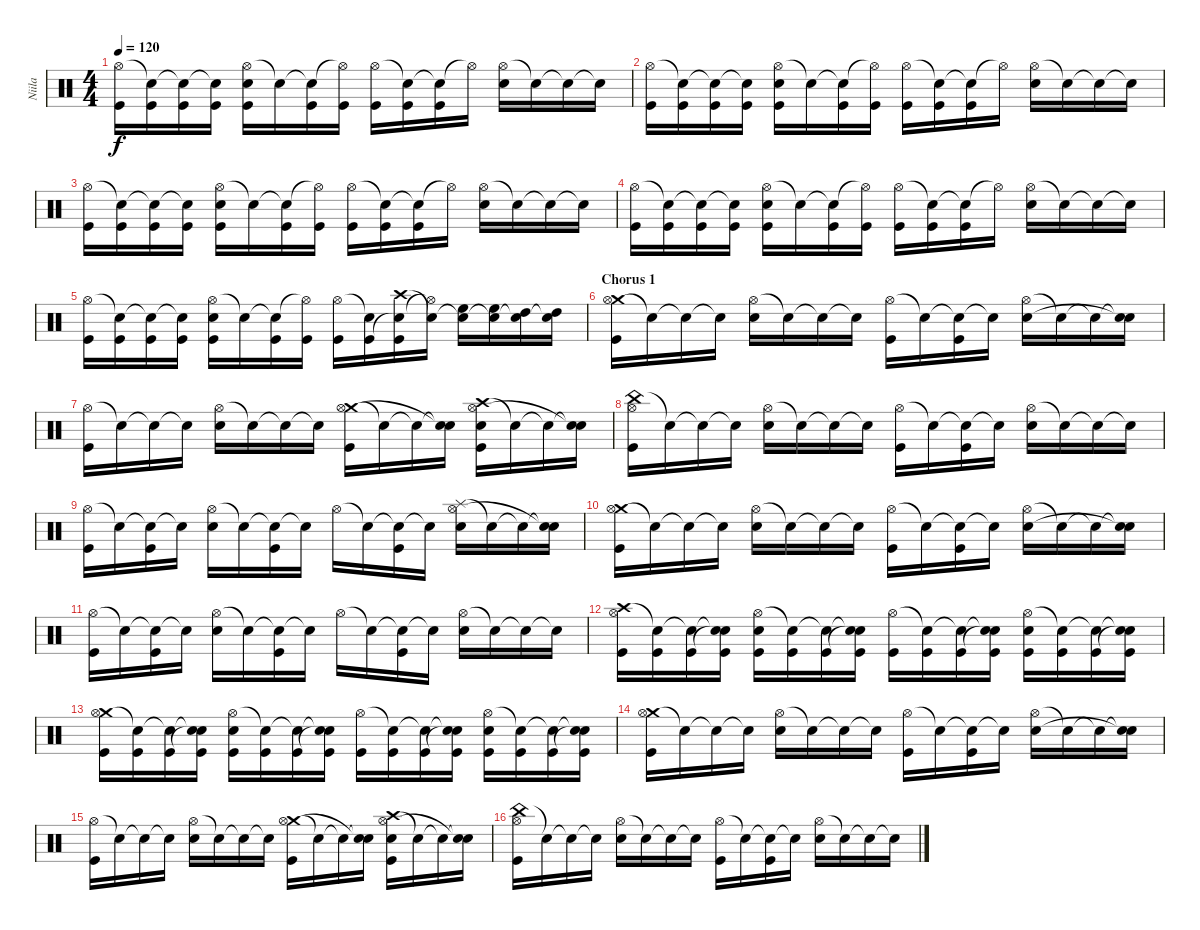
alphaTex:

\track ("Niila" "Niila") {instrument percussion}
\staff {score}
\articulation defaults
\ts (4 4)
\tempo 120
\clef neutral
\ks c
("Hi-Hat (open)" "Kick (hit)").16{dy f} ("Snare (hit)"{t} "Kick (hit)").16 ("Snare (hit)"{t} "Kick (hit)").16 ("Snare (hit)"{t} "Kick (hit)").16 ("Hi-Hat (open)" "Snare (hit) 2" "Kick (hit)").16 "Snare (hit)"{t}.16 ("Snare (hit)"{t} "Kick (hit)").16 ("Hi-Hat (open)"{t} "Kick (hit)").16 ("Hi-Hat (open)" "Kick (hit)").16 ("Snare (hit)"{t} "Kick (hit)").16 ("Snare (hit)"{t} "Kick (hit)").16 "Hi-Hat (open)"{t}.16 ("Hi-Hat (open)" "Snare (hit) 2").16 "Snare (hit)"{t}.16 "Snare (hit)"{t}.16 "Snare (hit)"{t}.16 |
("Hi-Hat (open)" "Kick (hit)").16 ("Snare (hit)"{t} "Kick (hit)").16 ("Snare (hit)"{t} "Kick (hit)").16 ("Snare (hit)"{t} "Kick (hit)").16 ("Hi-Hat (open)" "Snare (hit) 2" "Kick (hit)").16 "Snare (hit)"{t}.16 ("Snare (hit)"{t} "Kick (hit)").16 ("Hi-Hat (open)"{t} "Kick (hit)").16 ("Hi-Hat (open)" "Kick (hit)").16 ("Snare (hit)"{t} "Kick (hit)").16 ("Snare (hit)"{t} "Kick (hit)").16 "Hi-Hat (open)"{t}.16 ("Hi-Hat (open)" "Snare (hit) 2").16 "Snare (hit)"{t}.16 "Snare (hit)"{t}.16 "Snare (hit)"{t}.16 |
("Hi-Hat (open)" "Kick (hit)").16 ("Snare (hit)"{t} "Kick (hit)").16 ("Snare (hit)"{t} "Kick (hit)").16 ("Snare (hit)"{t} "Kick (hit)").16 ("Hi-Hat (open)" "Snare (hit) 2" "Kick (hit)").16 "Snare (hit)"{t}.16 ("Snare (hit)"{t} "Kick (hit)").16 ("Hi-Hat (open)"{t} "Kick (hit)").16 ("Hi-Hat (open)" "Kick (hit)").16 ("Snare (hit)"{t} "Kick (hit)").16 ("Snare (hit)"{t} "Kick (hit)").16 "Hi-Hat (open)"{t}.16 ("Hi-Hat (open)" "Snare (hit) 2").16 "Snare (hit)"{t}.16 "Snare (hit)"{t}.16 "Snare (hit)"{t}.16 |
("Hi-Hat (open)" "Kick (hit)").16 ("Snare (hit)"{t} "Kick (hit)").16 ("Snare (hit)"{t} "Kick (hit)").16 ("Snare (hit)"{t} "Kick (hit)").16 ("Hi-Hat (open)" "Snare (hit) 2" "Kick (hit)").16 "Snare (hit)"{t}.16 ("Snare (hit)"{t} "Kick (hit)").16 ("Hi-Hat (open)"{t} "Kick (hit)").16 ("Hi-Hat (open)" "Kick (hit)").16 ("Snare (hit)"{t} "Kick (hit)").16 ("Snare (hit)"{t} "Kick (hit)").16 "Hi-Hat (open)"{t}.16 ("Hi-Hat (open)" "Snare (hit) 2").16 "Snare (hit)"{t}.16 "Snare (hit)"{t}.16 "Snare (hit)"{t}.16 |
("Hi-Hat (open)" "Kick (hit)").16 ("Snare (hit)"{t} "Kick (hit)").16 ("Snare (hit)"{t} "Kick (hit)").16 ("Snare (hit)"{t} "Kick (hit)").16 ("Hi-Hat (open)" "Snare (hit) 2" "Kick (hit)").16 "Snare (hit)"{t}.16 ("Snare (hit)"{t} "Kick (hit)").16 ("Hi-Hat (open)"{t} "Kick (hit)").16 ("Hi-Hat (open)" "Kick (hit)").16 ("Snare (hit)"{t} "Kick (hit)").16 ("Crash high (hit)" "Snare (hit)"{t} "Kick (hit)").16 ("Snare (hit)"{t} "Hi-Hat (open)"{t}).16 ("Snare (hit)"{t} "High Floor Tom (hit)").16 ("Snare (hit)"{t} "High Floor Tom (hit)").16 ("Snare (hit)"{t} "High Tom (hit)").16 ("Snare (hit)"{t} "High Tom (hit)").16 |
\section ("" "Chorus 1")
("Crash medium (hit)" "Hi-Hat (open)" "Kick (hit)").16 "Snare (hit)"{t}.16 "Snare (hit)"{t}.16 "Snare (hit)"{t}.16 ("Hi-Hat (open)" "Snare (hit) 2").16 "Snare (hit)"{t}.16 "Snare (hit)"{t}.16 "Snare (hit)"{t}.16 ("Hi-Hat (open)" "Kick (hit)").16 "Snare (hit)"{t}.16 ("Snare (hit)"{t} "Kick (hit)").16 "Snare (hit)"{t}.16 ("Hi-Hat (open)" "Snare (hit) 2").16 "Snare (hit)"{t}.16 "Snare (hit)"{t}.16 ("Snare (hit)"{t} "Snare (hit)"{t}).16 |
("Hi-Hat (open)" "Kick (hit)").16 "Snare (hit)"{t}.16 "Snare (hit)"{t}.16 "Snare (hit)"{t}.16 ("Hi-Hat (open)" "Snare (hit) 2").16 "Snare (hit)"{t}.16 "Snare (hit)"{t}.16 "Snare (hit)"{t}.16 ("Crash medium (hit)" "Hi-Hat (open)" "Kick (hit)").16 "Snare (hit)"{t}.16 "Snare (hit)"{t}.16 ("Snare (hit)"{t} "Snare (hit)"{t}).16 ("Crash high (hit)" "Hi-Hat (open)" "Snare (hit) 2" "Kick (hit)").16 "Snare (hit)"{t}.16 "Snare (hit)"{t}.16 ("Snare (hit)"{t} "Snare (hit)"{t}).16 |
("China (hit)" "Hi-Hat (open)" "Kick (hit)").16 "Snare (hit)"{t}.16 "Snare (hit)"{t}.16 "Snare (hit)"{t}.16 ("Hi-Hat (open)" "Snare (hit) 2").16 "Snare (hit)"{t}.16 "Snare (hit)"{t}.16 "Snare (hit)"{t}.16 ("Hi-Hat (open)" "Kick (hit)").16 "Snare (hit)"{t}.16 ("Snare (hit)"{t} "Kick (hit)").16 "Snare (hit)"{t}.16 ("Hi-Hat (open)" "Snare (hit) 2").16 "Snare (hit)"{t}.16 "Snare (hit)"{t}.16 "Snare (hit)"{t}.16 |
("Hi-Hat (open)" "Kick (hit)").16 "Snare (hit)"{t}.16 ("Snare (hit)"{t} "Kick (hit)").16 "Snare (hit)"{t}.16 ("Hi-Hat (open)" "Snare (hit) 2").16 "Snare (hit)"{t}.16 ("Snare (hit)"{t} "Kick (hit)").16 "Snare (hit)"{t}.16 "Hi-Hat (open)".16 "Snare (hit)"{t}.16 ("Snare (hit)"{t} "Kick (hit)").16 "Snare (hit)"{t}.16 ("Splash (hit)" "Hi-Hat (open)" "Snare (hit) 2").16 "Snare (hit)"{t}.16 "Snare (hit)"{t}.16 ("Snare (hit)"{t} "Snare (hit)"{t}).16 |
("Crash medium (hit)" "Hi-Hat (open)" "Kick (hit)").16 "Snare (hit)"{t}.16 "Snare (hit)"{t}.16 "Snare (hit)"{t}.16 ("Hi-Hat (open)" "Snare (hit) 2").16 "Snare (hit)"{t}.16 "Snare (hit)"{t}.16 "Snare (hit)"{t}.16 ("Hi-Hat (open)" "Kick (hit)").16 "Snare (hit)"{t}.16 ("Snare (hit)"{t} "Kick (hit)").16 "Snare (hit)"{t}.16 ("Hi-Hat (open)" "Snare (hit) 2").16 "Snare (hit)"{t}.16 "Snare (hit)"{t}.16 ("Snare (hit)"{t} "Snare (hit)"{t}).16 |
("Hi-Hat (open)" "Kick (hit)").16 "Snare (hit)"{t}.16 ("Snare (hit)"{t} "Kick (hit)").16 "Snare (hit)"{t}.16 ("Hi-Hat (open)" "Snare (hit) 2").16 "Snare (hit)"{t}.16 ("Snare (hit)"{t} "Kick (hit)").16 "Snare (hit)"{t}.16 "Hi-Hat (open)".16 "Snare (hit)"{t}.16 ("Snare (hit)"{t} "Kick (hit)").16 "Snare (hit)"{t}.16 ("Hi-Hat (open)" "Snare (hit) 2").16 "Snare (hit)"{t}.16 "Snare (hit)"{t}.16 "Snare (hit)"{t}.16 |
("Crash high (hit)" "Hi-Hat (open)" "Kick (hit)").16 ("Snare (hit)"{t} "Kick (hit)").16 ("Snare (hit)"{t} "Kick (hit)").16 ("Snare (hit)"{t} "Snare (hit)"{t} "Kick (hit)").16 ("Hi-Hat (open)" "Snare (hit) 2" "Kick (hit)").16 ("Snare (hit)"{t} "Kick (hit)").16 ("Snare (hit)"{t} "Kick (hit)").16 ("Snare (hit)"{t} "Snare (hit)"{t} "Kick (hit)").16 ("Hi-Hat (open)" "Kick (hit)").16 ("Snare (hit)"{t} "Kick (hit)").16 ("Snare (hit)"{t} "Kick (hit)").16 ("Snare (hit)"{t} "Snare (hit)"{t} "Kick (hit)").16 ("Hi-Hat (open)" "Snare (hit) 2" "Kick (hit)").16 ("Snare (hit)"{t} "Kick (hit)").16 ("Snare (hit)"{t} "Kick (hit)").16 ("Snare (hit)"{t} "Snare (hit)"{t} "Kick (hit)").16 |
("Crash medium (hit)" "Hi-Hat (open)" "Kick (hit)").16 ("Snare (hit)"{t} "Kick (hit)").16 ("Snare (hit)"{t} "Kick (hit)").16 ("Snare (hit)"{t} "Snare (hit)"{t} "Kick (hit)").16 ("Hi-Hat (open)" "Snare (hit) 2" "Kick (hit)").16 ("Snare (hit)"{t} "Kick (hit)").16 ("Snare (hit)"{t} "Kick (hit)").16 ("Snare (hit)"{t} "Snare (hit)"{t} "Kick (hit)").16 ("Hi-Hat (open)" "Kick (hit)").16 ("Snare (hit)"{t} "Kick (hit)").16 ("Snare (hit)"{t} "Kick (hit)").16 ("Snare (hit)"{t} "Snare (hit)"{t} "Kick (hit)").16 ("Hi-Hat (open)" "Snare (hit) 2" "Kick (hit)").16 ("Snare (hit)"{t} "Kick (hit)").16 ("Snare (hit)"{t} "Kick (hit)").16 ("Snare (hit)"{t} "Snare (hit)"{t} "Kick (hit)").16 |
("Crash medium (hit)" "Hi-Hat (open)" "Kick (hit)").16 "Snare (hit)"{t}.16 "Snare (hit)"{t}.16 "Snare (hit)"{t}.16 ("Hi-Hat (open)" "Snare (hit) 2").16 "Snare (hit)"{t}.16 "Snare (hit)"{t}.16 "Snare (hit)"{t}.16 ("Hi-Hat (open)" "Kick (hit)").16 "Snare (hit)"{t}.16 ("Snare (hit)"{t} "Kick (hit)").16 "Snare (hit)"{t}.16 ("Hi-Hat (open)" "Snare (hit) 2").16 "Snare (hit)"{t}.16 "Snare (hit)"{t}.16 ("Snare (hit)"{t} "Snare (hit)"{t}).16 |
("Hi-Hat (open)" "Kick (hit)").16 "Snare (hit)"{t}.16 "Snare (hit)"{t}.16 "Snare (hit)"{t}.16 ("Hi-Hat (open)" "Snare (hit) 2").16 "Snare (hit)"{t}.16 "Snare (hit)"{t}.16 "Snare (hit)"{t}.16 ("Crash medium (hit)" "Hi-Hat (open)" "Kick (hit)").16 "Snare (hit)"{t}.16 "Snare (hit)"{t}.16 ("Snare (hit)"{t} "Snare (hit)"{t}).16 ("Crash high (hit)" "Hi-Hat (open)" "Snare (hit) 2" "Kick (hit)").16 "Snare (hit)"{t}.16 "Snare (hit)"{t}.16 ("Snare (hit)"{t} "Snare (hit)"{t}).16 |
("China (hit)" "Hi-Hat (open)" "Kick (hit)").16 "Snare (hit)"{t}.16 "Snare (hit)"{t}.16 "Snare (hit)"{t}.16 ("Hi-Hat (open)" "Snare (hit) 2").16 "Snare (hit)"{t}.16 "Snare (hit)"{t}.16 "Snare (hit)"{t}.16 ("Hi-Hat (open)" "Kick (hit)").16 "Snare (hit)"{t}.16 ("Snare (hit)"{t} "Kick (hit)").16 "Snare (hit)"{t}.16 ("Hi-Hat (open)" "Snare (hit) 2").16 "Snare (hit)"{t}.16 "Snare (hit)"{t}.16 "Snare (hit)"{t}.16
